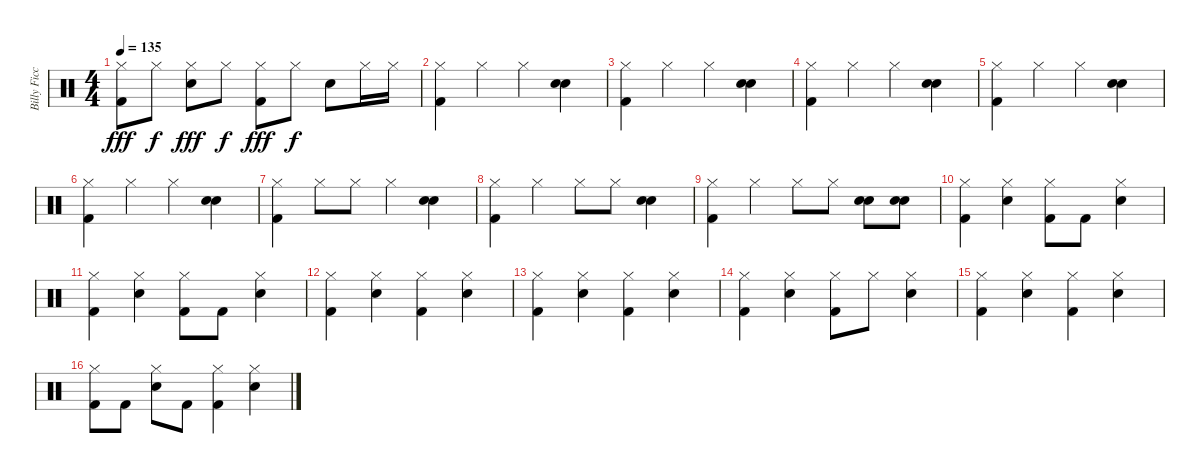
\track ("Billy Ficca" "Billy Ficc") {instrument percussion}
\staff {score}
\articulation defaults
\ts (4 4)
\tempo 135
\clef neutral
\ks c
("Hi-Hat (closed)" "Kick (hit) 2").8{dy fff} "Hi-Hat (closed)".8{dy f} ("Hi-Hat (closed)" "Electric Snare (hit)").8{dy fff} "Hi-Hat (closed)".8{dy f} ("Hi-Hat (closed)" "Kick (hit) 2").8{dy fff} "Hi-Hat (closed)".8{dy f} "Electric Snare (hit)".8 "Hi-Hat (closed)".16 "Hi-Hat (closed)".16 |
("Hi-Hat (closed)" "Kick (hit) 2").4 "Hi-Hat (closed)".4 "Hi-Hat (closed)".4 ("Electric Snare (hit)" "Electric Snare (hit)").4 |
("Hi-Hat (closed)" "Kick (hit) 2").4 "Hi-Hat (closed)".4 "Hi-Hat (closed)".4 ("Electric Snare (hit)" "Electric Snare (hit)").4 |
("Hi-Hat (closed)" "Kick (hit) 2").4 "Hi-Hat (closed)".4 "Hi-Hat (closed)".4 ("Electric Snare (hit)" "Electric Snare (hit)").4 |
("Hi-Hat (closed)" "Kick (hit) 2").4 "Hi-Hat (closed)".4 "Hi-Hat (closed)".4 ("Electric Snare (hit)" "Electric Snare (hit)").4 |
("Hi-Hat (closed)" "Kick (hit) 2").4 "Hi-Hat (closed)".4 "Hi-Hat (closed)".4 ("Electric Snare (hit)" "Electric Snare (hit)").4 |
("Hi-Hat (closed)" "Kick (hit) 2").4 "Hi-Hat (closed)".8 "Hi-Hat (closed)".8 "Hi-Hat (closed)".4 ("Electric Snare (hit)" "Electric Snare (hit)").4 |
("Hi-Hat (closed)" "Kick (hit) 2").4 "Hi-Hat (closed)".4 "Hi-Hat (closed)".8 "Hi-Hat (closed)".8 ("Electric Snare (hit)" "Electric Snare (hit)").4 |
("Hi-Hat (closed)" "Kick (hit) 2").4 "Hi-Hat (closed)".4 "Hi-Hat (closed)".8 "Hi-Hat (closed)".8 ("Electric Snare (hit)" "Electric Snare (hit)").8 ("Electric Snare (hit)" "Electric Snare (hit)").8 |
("Hi-Hat (closed)" "Kick (hit) 2").4 ("Hi-Hat (closed)" "Electric Snare (hit)").4 ("Hi-Hat (closed)" "Kick (hit) 2").8 "Kick (hit) 2".8 ("Hi-Hat (closed)" "Electric Snare (hit)").4 |
("Hi-Hat (closed)" "Kick (hit) 2").4 ("Hi-Hat (closed)" "Electric Snare (hit)").4 ("Hi-Hat (closed)" "Kick (hit) 2").8 "Kick (hit) 2".8 ("Hi-Hat (closed)" "Electric Snare (hit)").4 |
("Hi-Hat (closed)" "Kick (hit) 2").4 ("Hi-Hat (closed)" "Electric Snare (hit)").4 ("Hi-Hat (closed)" "Kick (hit) 2").4 ("Hi-Hat (closed)" "Electric Snare (hit)").4 |
("Hi-Hat (closed)" "Kick (hit) 2").4 ("Hi-Hat (closed)" "Electric Snare (hit)").4 ("Hi-Hat (closed)" "Kick (hit) 2").4 ("Hi-Hat (closed)" "Electric Snare (hit)").4 |
("Hi-Hat (closed)" "Kick (hit) 2").4 ("Hi-Hat (closed)" "Electric Snare (hit)").4 ("Hi-Hat (closed)" "Kick (hit) 2").8 "Hi-Hat (closed)".8 ("Hi-Hat (closed)" "Electric Snare (hit)").4 |
("Hi-Hat (closed)" "Kick (hit) 2").4 ("Hi-Hat (closed)" "Electric Snare (hit)").4 ("Hi-Hat (closed)" "Kick (hit) 2").4 ("Hi-Hat (closed)" "Electric Snare (hit)").4 |
("Hi-Hat (closed)" "Kick (hit) 2").8 "Kick (hit) 2".8 ("Hi-Hat (closed)" "Electric Snare (hit)").8 "Kick (hit) 2".8 ("Hi-Hat (closed)" "Kick (hit) 2").4 ("Hi-Hat (closed)" "Electric Snare (hit)").4
